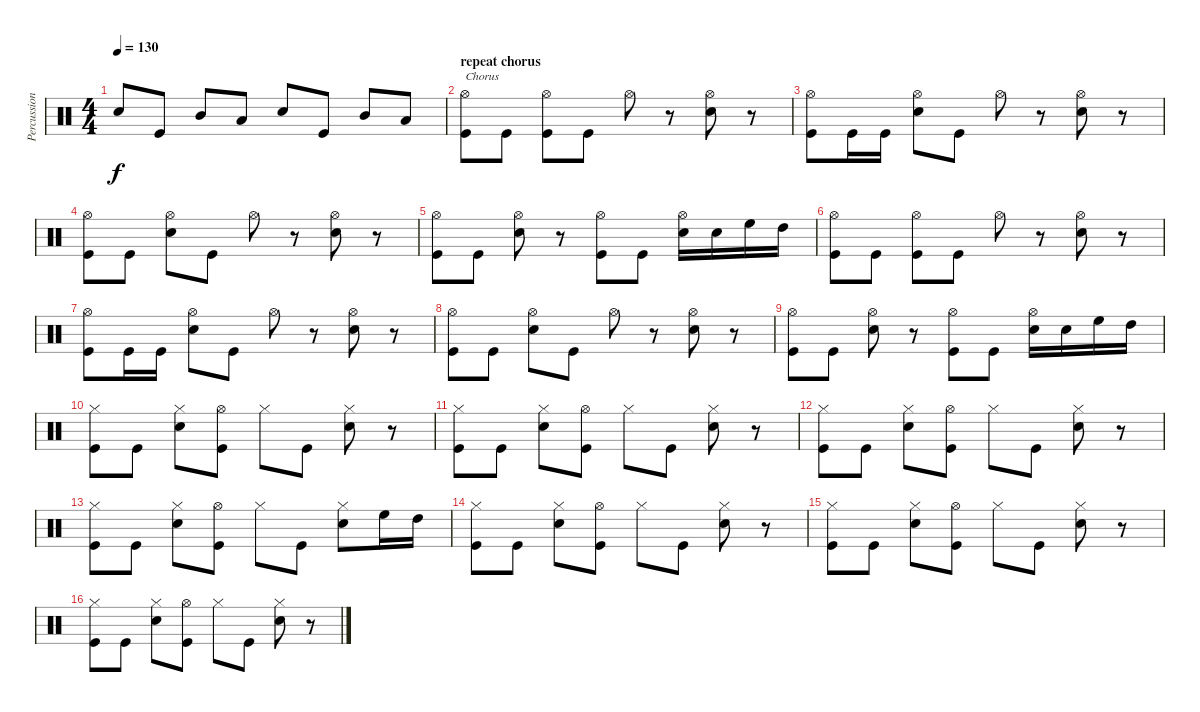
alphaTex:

\track ("Percussion" "Percussion") {instrument percussion}
\staff {score}
\articulation defaults
\ts (4 4)
\tempo 130
\clef neutral
\ks c "Snare (hit) 2".8{dy f} "Kick (hit)".8 "Mid Tom (hit)".8 "Low Tom (hit)".8 "Snare (hit) 2".8 "Kick (hit)".8 "Mid Tom (hit)".8 "Low Tom (hit)".8
|
\section ("" "repeat chorus")
("Hi-Hat (open)" "Kick (hit)").8{txt "Chorus"} "Kick (hit)".8 ("Hi-Hat (open)" "Kick (hit)").8 "Kick (hit)".8 "Hi-Hat (open)".8 r.8 ("Hi-Hat (open)" "Snare (hit) 2").8 r.8 |
("Hi-Hat (open)" "Kick (hit)").8 "Kick (hit)".16 "Kick (hit)".16 ("Hi-Hat (open)" "Snare (hit) 2").8 "Kick (hit)".8 "Hi-Hat (open)".8 r.8 ("Hi-Hat (open)" "Snare (hit) 2").8 r.8 |
("Hi-Hat (open)" "Kick (hit)").8 "Kick (hit)".8 ("Hi-Hat (open)" "Snare (hit) 2").8 "Kick (hit)".8 "Hi-Hat (open)".8 r.8 ("Hi-Hat (open)" "Snare (hit) 2").8 r.8 |
("Hi-Hat (open)" "Kick (hit)").8 "Kick (hit)".8 ("Hi-Hat (open)" "Snare (hit) 2").8 r.8 ("Hi-Hat (open)" "Kick (hit)").8 "Kick (hit)".8 ("Hi-Hat (open)" "Snare (hit) 2").16 "Snare (hit) 2".16 "High Floor Tom (hit)".16 "High Tom (hit)".16 |
("Hi-Hat (open)" "Kick (hit)").8 "Kick (hit)".8 ("Hi-Hat (open)" "Kick (hit)").8 "Kick (hit)".8 "Hi-Hat (open)".8 r.8 ("Hi-Hat (open)" "Snare (hit) 2").8 r.8 |
("Hi-Hat (open)" "Kick (hit)").8 "Kick (hit)".16 "Kick (hit)".16 ("Hi-Hat (open)" "Snare (hit) 2").8 "Kick (hit)".8 "Hi-Hat (open)".8 r.8 ("Hi-Hat (open)" "Snare (hit) 2").8 r.8 |
("Hi-Hat (open)" "Kick (hit)").8 "Kick (hit)".8 ("Hi-Hat (open)" "Snare (hit) 2").8 "Kick (hit)".8 "Hi-Hat (open)".8 r.8 ("Hi-Hat (open)" "Snare (hit) 2").8 r.8 |
("Hi-Hat (open)" "Kick (hit)").8 "Kick (hit)".8 ("Hi-Hat (open)" "Snare (hit) 2").8 r.8 ("Hi-Hat (open)" "Kick (hit)").8 "Kick (hit)".8 ("Hi-Hat (open)" "Snare (hit) 2").16 "Snare (hit) 2".16 "High Floor Tom (hit)".16 "High Tom (hit)".16 |
("Hi-Hat (closed)" "Kick (hit)").8 "Kick (hit)".8 ("Hi-Hat (closed)" "Snare (hit) 2").8 ("Hi-Hat (open)" "Kick (hit)").8 "Hi-Hat (closed)".8 "Kick (hit)".8 ("Hi-Hat (closed)" "Snare (hit) 2").8 r.8 |
("Hi-Hat (closed)" "Kick (hit)").8 "Kick (hit)".8 ("Hi-Hat (closed)" "Snare (hit) 2").8 ("Hi-Hat (open)" "Kick (hit)").8 "Hi-Hat (closed)".8 "Kick (hit)".8 ("Hi-Hat (closed)" "Snare (hit) 2").8 r.8 |
("Hi-Hat (closed)" "Kick (hit)").8 "Kick (hit)".8 ("Hi-Hat (closed)" "Snare (hit) 2").8 ("Hi-Hat (open)" "Kick (hit)").8 "Hi-Hat (closed)".8 "Kick (hit)".8 ("Hi-Hat (closed)" "Snare (hit) 2").8 r.8 |
("Hi-Hat (closed)" "Kick (hit)").8 "Kick (hit)".8 ("Hi-Hat (closed)" "Snare (hit) 2").8 ("Hi-Hat (open)" "Kick (hit)").8 "Hi-Hat (closed)".8 "Kick (hit)".8 ("Hi-Hat (closed)" "Snare (hit) 2").8 "High Floor Tom (hit)".16 "High Tom (hit)".16 |
("Hi-Hat (closed)" "Kick (hit)").8 "Kick (hit)".8 ("Hi-Hat (closed)" "Snare (hit) 2").8 ("Hi-Hat (open)" "Kick (hit)").8 "Hi-Hat (closed)".8 "Kick (hit)".8 ("Hi-Hat (closed)" "Snare (hit) 2").8 r.8 |
("Hi-Hat (closed)" "Kick (hit)").8 "Kick (hit)".8 ("Hi-Hat (closed)" "Snare (hit) 2").8 ("Hi-Hat (open)" "Kick (hit)").8 "Hi-Hat (closed)".8 "Kick (hit)".8 ("Hi-Hat (closed)" "Snare (hit) 2").8 r.8 |
("Hi-Hat (closed)" "Kick (hit)").8 "Kick (hit)".8 ("Hi-Hat (closed)" "Snare (hit) 2").8 ("Hi-Hat (open)" "Kick (hit)").8 "Hi-Hat (closed)".8 "Kick (hit)".8 ("Hi-Hat (closed)" "Snare (hit) 2").8 r.8
